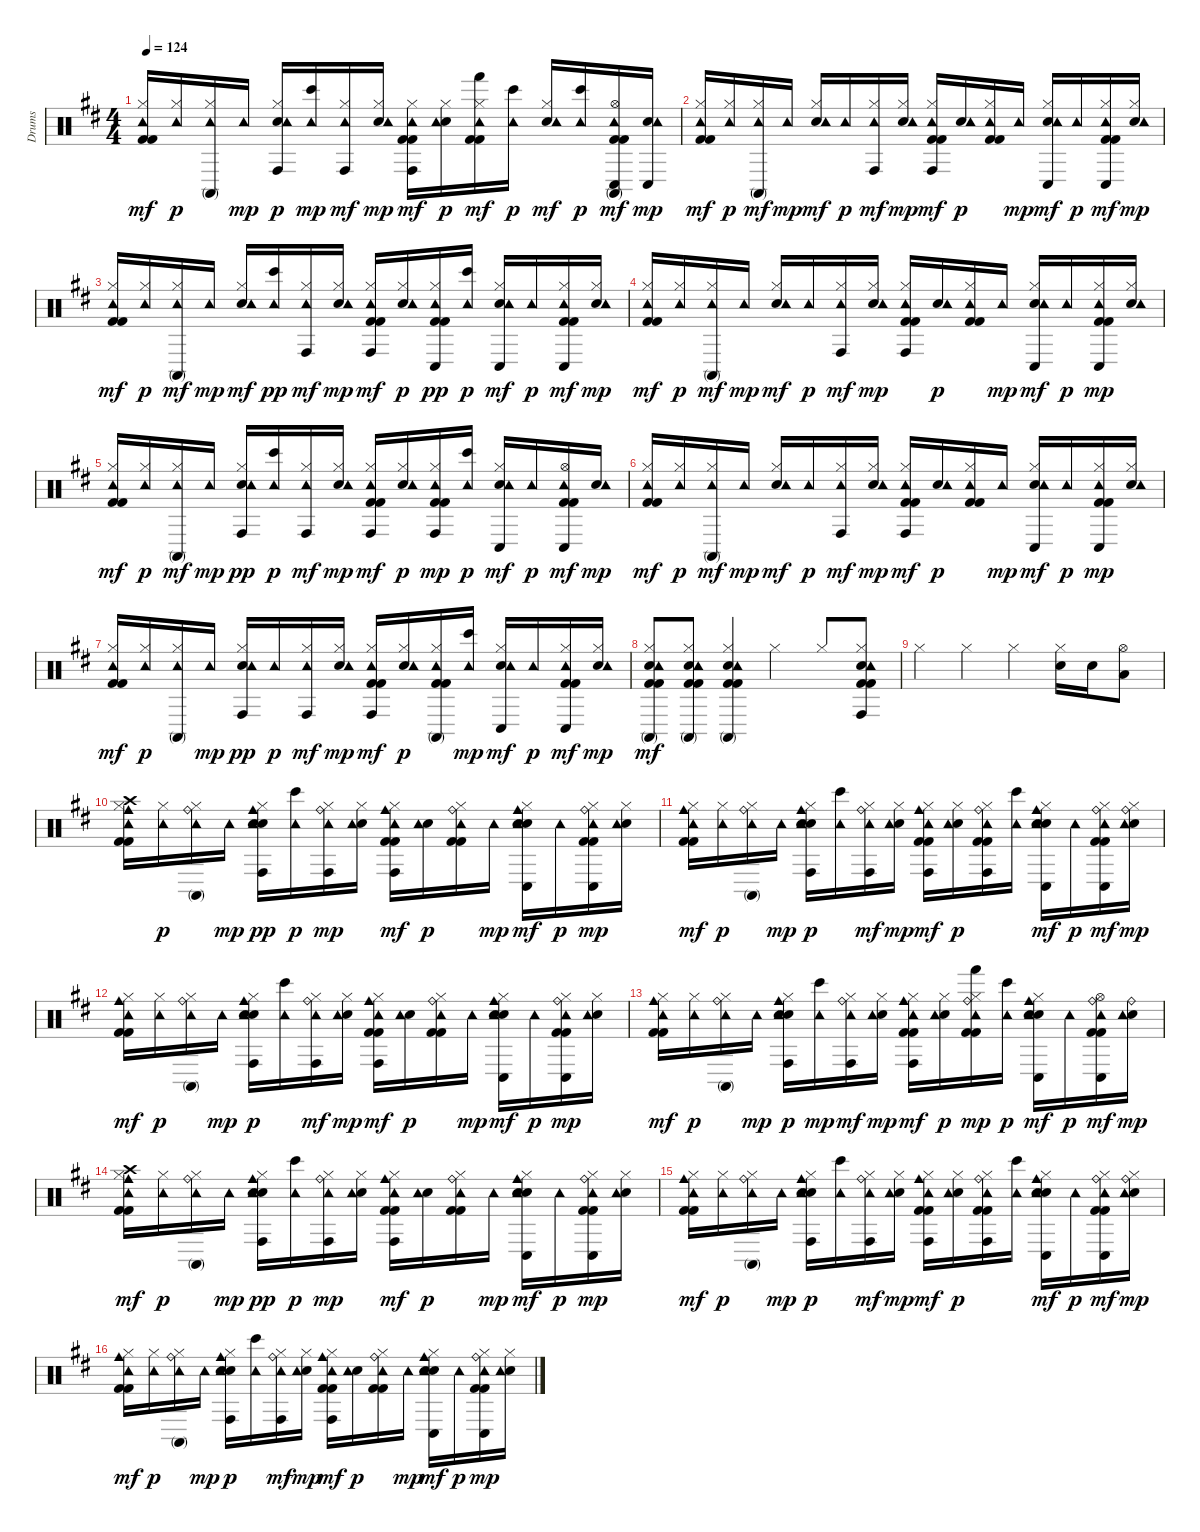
\track ("Drums" "Drums") {instrument percussion}
\staff {score}
\articulation defaults
\ts (4 4)
\tempo 124
\clef neutral
\ks d
("Kick (hit) 2" "Kick (hit) 2" "Hi-Hat (closed)" "Tambourine (hit)").16{dy mf} ("Hi-Hat (closed)" "Tambourine (hit)").16{dy p} ("Hi-Hat (closed)" "Tambourine (hit)" "Conga high (mute)").16 "Tambourine (hit)".16{dy mp} ("Electric Snare (hit)" "Hi-Hat (closed)" "Tambourine (hit)" "Conga high (hit)").16{dy p} ("Tambourine (hit)" "Bongo High (hit)").16{dy mp} ("Hi-Hat (closed)" "Tambourine (hit)" "Conga high (hit)").16{dy mf} ("Electric Snare (hit)" "Hi-Hat (closed)" "Tambourine (hit)").16{dy mp} ("Kick (hit) 2" "Kick (hit) 2" "Hi-Hat (closed)" "Tambourine (hit)" "Conga high (hit)").16{dy mf} ("Electric Snare (hit)" "Hi-Hat (closed)" "Tambourine (hit)").16{dy p} ("Kick (hit) 2" "Kick (hit) 2" "Hi-Hat (closed)" "Tambourine (hit)" "Hand (hit)").16{dy mf} ("Tambourine (hit)" "Bongo High (hit)").16{dy p} ("Electric Snare (hit)" "Hi-Hat (closed)" "Tambourine (hit)").16{dy mf} ("Tambourine (hit)" "Bongo High (hit)").16{dy p} ("Kick (hit) 2" "Kick (hit) 2" "Hi-Hat (open)" "Tambourine (hit)" "Conga high (mute)" "Conga low (hit)").16{dy mf} ("Electric Snare (hit)" "Tambourine (hit)" "Conga low (hit)").16{dy mp} |
("Kick (hit) 2" "Kick (hit) 2" "Hi-Hat (closed)" "Tambourine (hit)").16{dy mf} ("Hi-Hat (closed)" "Tambourine (hit)").16{dy p} ("Hi-Hat (closed)" "Tambourine (hit)" "Conga high (mute)").16{dy mf} "Tambourine (hit)".16{dy mp} ("Electric Snare (hit)" "Hi-Hat (closed)" "Tambourine (hit)").16{dy mf} "Tambourine (hit)".16{dy p} ("Hi-Hat (closed)" "Tambourine (hit)" "Conga high (hit)").16{dy mf} ("Electric Snare (hit)" "Hi-Hat (closed)" "Tambourine (hit)").16{dy mp} ("Kick (hit) 2" "Kick (hit) 2" "Hi-Hat (closed)" "Tambourine (hit)" "Conga high (hit)").16{dy mf} ("Electric Snare (hit)" "Tambourine (hit)").16{dy p} ("Kick (hit) 2" "Kick (hit) 2" "Hi-Hat (closed)" "Tambourine (hit)").16 "Tambourine (hit)".16{dy mp} ("Electric Snare (hit)" "Hi-Hat (closed)" "Tambourine (hit)" "Conga low (hit)").16{dy mf} "Tambourine (hit)".16{dy p} ("Kick (hit) 2" "Kick (hit) 2" "Hi-Hat (closed)" "Tambourine (hit)" "Conga low (hit)").16{dy mf} ("Electric Snare (hit)" "Hi-Hat (closed)" "Tambourine (hit)").16{dy mp} |
("Kick (hit) 2" "Kick (hit) 2" "Hi-Hat (closed)" "Tambourine (hit)").16{dy mf} ("Hi-Hat (closed)" "Tambourine (hit)").16{dy p} ("Hi-Hat (closed)" "Tambourine (hit)" "Conga high (mute)").16{dy mf} "Tambourine (hit)".16{dy mp} ("Electric Snare (hit)" "Hi-Hat (closed)" "Tambourine (hit)").16{dy mf} ("Tambourine (hit)" "Bongo High (hit)").16{dy pp} ("Hi-Hat (closed)" "Tambourine (hit)" "Conga high (hit)").16{dy mf} ("Electric Snare (hit)" "Hi-Hat (closed)" "Tambourine (hit)").16{dy mp} ("Kick (hit) 2" "Kick (hit) 2" "Hi-Hat (closed)" "Tambourine (hit)" "Conga high (hit)").16{dy mf} ("Electric Snare (hit)" "Hi-Hat (closed)" "Tambourine (hit)").16{dy p} ("Kick (hit) 2" "Kick (hit) 2" "Hi-Hat (closed)" "Tambourine (hit)" "Conga low (hit)").16{dy pp} ("Tambourine (hit)" "Bongo High (hit)").16{dy p} ("Electric Snare (hit)" "Hi-Hat (closed)" "Tambourine (hit)" "Conga low (hit)").16{dy mf} "Tambourine (hit)".16{dy p} ("Kick (hit) 2" "Kick (hit) 2" "Hi-Hat (closed)" "Tambourine (hit)" "Conga low (hit)").16{dy mf} ("Electric Snare (hit)" "Hi-Hat (closed)" "Tambourine (hit)").16{dy mp} |
("Kick (hit) 2" "Kick (hit) 2" "Hi-Hat (closed)" "Tambourine (hit)").16{dy mf} ("Hi-Hat (closed)" "Tambourine (hit)").16{dy p} ("Hi-Hat (closed)" "Tambourine (hit)" "Conga high (mute)").16{dy mf} "Tambourine (hit)".16{dy mp} ("Electric Snare (hit)" "Hi-Hat (closed)" "Tambourine (hit)").16{dy mf} "Tambourine (hit)".16{dy p} ("Hi-Hat (closed)" "Tambourine (hit)" "Conga high (hit)").16{dy mf} ("Electric Snare (hit)" "Hi-Hat (closed)" "Tambourine (hit)").16{dy mp} ("Kick (hit) 2" "Kick (hit) 2" "Hi-Hat (closed)" "Tambourine (hit)" "Conga high (hit)").16 ("Electric Snare (hit)" "Tambourine (hit)").16{dy p} ("Kick (hit) 2" "Kick (hit) 2" "Hi-Hat (closed)" "Tambourine (hit)").16 "Tambourine (hit)".16{dy mp} ("Electric Snare (hit)" "Hi-Hat (closed)" "Tambourine (hit)" "Conga low (hit)").16{dy mf} "Tambourine (hit)".16{dy p} ("Kick (hit) 2" "Kick (hit) 2" "Hi-Hat (closed)" "Tambourine (hit)" "Conga low (hit)").16{dy mp} ("Electric Snare (hit)" "Hi-Hat (closed)" "Tambourine (hit)").16 |
("Kick (hit) 2" "Kick (hit) 2" "Hi-Hat (closed)" "Tambourine (hit)").16{dy mf} ("Hi-Hat (closed)" "Tambourine (hit)").16{dy p} ("Hi-Hat (closed)" "Tambourine (hit)" "Conga high (mute)").16{dy mf} "Tambourine (hit)".16{dy mp} ("Electric Snare (hit)" "Hi-Hat (closed)" "Tambourine (hit)" "Conga high (hit)").16{dy pp} ("Tambourine (hit)" "Bongo High (hit)").16{dy p} ("Hi-Hat (closed)" "Tambourine (hit)" "Conga high (hit)").16{dy mf} ("Electric Snare (hit)" "Hi-Hat (closed)" "Tambourine (hit)").16{dy mp} ("Kick (hit) 2" "Kick (hit) 2" "Hi-Hat (closed)" "Tambourine (hit)" "Conga high (hit)").16{dy mf} ("Electric Snare (hit)" "Hi-Hat (closed)" "Tambourine (hit)").16{dy p} ("Kick (hit) 2" "Kick (hit) 2" "Hi-Hat (closed)" "Tambourine (hit)" "Conga high (hit)").16{dy mp} ("Tambourine (hit)" "Bongo High (hit)").16{dy p} ("Electric Snare (hit)" "Hi-Hat (closed)" "Tambourine (hit)" "Conga low (hit)").16{dy mf} "Tambourine (hit)".16{dy p} ("Kick (hit) 2" "Kick (hit) 2" "Hi-Hat (open)" "Tambourine (hit)" "Conga low (hit)").16{dy mf} ("Electric Snare (hit)" "Tambourine (hit)").16{dy mp} |
("Kick (hit) 2" "Kick (hit) 2" "Hi-Hat (closed)" "Tambourine (hit)").16{dy mf} ("Hi-Hat (closed)" "Tambourine (hit)").16{dy p} ("Hi-Hat (closed)" "Tambourine (hit)" "Conga high (mute)").16{dy mf} "Tambourine (hit)".16{dy mp} ("Electric Snare (hit)" "Hi-Hat (closed)" "Tambourine (hit)").16{dy mf} "Tambourine (hit)".16{dy p} ("Hi-Hat (closed)" "Tambourine (hit)" "Conga high (hit)").16{dy mf} ("Electric Snare (hit)" "Hi-Hat (closed)" "Tambourine (hit)").16{dy mp} ("Kick (hit) 2" "Kick (hit) 2" "Hi-Hat (closed)" "Tambourine (hit)" "Conga high (hit)").16{dy mf} ("Electric Snare (hit)" "Tambourine (hit)").16{dy p} ("Kick (hit) 2" "Kick (hit) 2" "Hi-Hat (closed)" "Tambourine (hit)").16 "Tambourine (hit)".16{dy mp} ("Electric Snare (hit)" "Hi-Hat (closed)" "Tambourine (hit)" "Conga low (hit)").16{dy mf} "Tambourine (hit)".16{dy p} ("Kick (hit) 2" "Kick (hit) 2" "Hi-Hat (closed)" "Tambourine (hit)" "Conga low (hit)").16{dy mp} ("Electric Snare (hit)" "Hi-Hat (closed)" "Tambourine (hit)").16 |
("Kick (hit) 2" "Kick (hit) 2" "Hi-Hat (closed)" "Tambourine (hit)").16{dy mf} ("Hi-Hat (closed)" "Tambourine (hit)").16{dy p} ("Hi-Hat (closed)" "Tambourine (hit)" "Conga high (mute)").16 "Tambourine (hit)".16{dy mp} ("Electric Snare (hit)" "Hi-Hat (closed)" "Tambourine (hit)" "Conga high (hit)").16{dy pp} "Tambourine (hit)".16{dy p} ("Hi-Hat (closed)" "Tambourine (hit)" "Conga high (hit)").16{dy mf} ("Electric Snare (hit)" "Hi-Hat (closed)" "Tambourine (hit)").16{dy mp} ("Kick (hit) 2" "Kick (hit) 2" "Hi-Hat (closed)" "Tambourine (hit)" "Conga high (hit)").16{dy mf} ("Electric Snare (hit)" "Hi-Hat (closed)" "Tambourine (hit)").16{dy p} ("Kick (hit) 2" "Kick (hit) 2" "Hi-Hat (closed)" "Tambourine (hit)" "Conga high (mute)").16 ("Tambourine (hit)" "Bongo High (hit)").16{dy mp} ("Electric Snare (hit)" "Hi-Hat (closed)" "Tambourine (hit)" "Conga low (hit)").16{dy mf} "Tambourine (hit)".16{dy p} ("Kick (hit) 2" "Kick (hit) 2" "Hi-Hat (closed)" "Tambourine (hit)" "Conga low (hit)").16{dy mf} ("Electric Snare (hit)" "Hi-Hat (closed)" "Tambourine (hit)").16{dy mp} |
("Kick (hit) 2" "Kick (hit) 2" "Electric Snare (hit)" "Hi-Hat (closed)" "Tambourine (hit)" "Conga high (mute)").8{dy mf} ("Kick (hit) 2" "Kick (hit) 2" "Electric Snare (hit)" "Hi-Hat (closed)" "Tambourine (hit)" "Conga high (mute)").8 ("Kick (hit) 2" "Kick (hit) 2" "Electric Snare (hit)" "Hi-Hat (closed)" "Tambourine (hit)" "Conga high (mute)").4 "Hi-Hat (closed)".4 "Hi-Hat (closed)".8 ("Kick (hit) 2" "Kick (hit) 2" "Electric Snare (hit)" "Hi-Hat (closed)" "Tambourine (hit)" "Conga high (hit)").8 |
"Hi-Hat (closed)".4 "Hi-Hat (closed)".4 "Hi-Hat (closed)".4 ("Electric Snare (hit)" "Hi-Hat (closed)").16 "Electric Snare (hit)".16 ("Low Tom (hit)" "Hi-Hat (open)").8 |
("Kick (hit) 2" "Kick (hit) 2" "Hi-Hat (closed)" "Crash high (hit)" "Tambourine (hit)" "Cowbell medium (hit)").16 ("Hi-Hat (closed)" "Tambourine (hit)").16{dy p} ("Hi-Hat (closed)" "Ride (bell)" "Tambourine (hit)" "Conga high (mute)").16 "Tambourine (hit)".16{dy mp} ("Hand Clap (hit)" "Electric Snare (hit)" "Hi-Hat (closed)" "Tambourine (hit)" "Cowbell medium (hit)" "Conga high (hit)").16{dy pp} ("Tambourine (hit)" "Bongo High (hit)").16{dy p} ("Hi-Hat (closed)" "Ride (bell)" "Tambourine (hit)" "Conga high (hit)").16{dy mp} ("Electric Snare (hit)" "Hi-Hat (closed)" "Tambourine (hit)").16 ("Kick (hit) 2" "Kick (hit) 2" "Hi-Hat (closed)" "Tambourine (hit)" "Cowbell medium (hit)" "Conga high (hit)").16{dy mf} ("Electric Snare (hit)" "Tambourine (hit)").16{dy p} ("Kick (hit) 2" "Kick (hit) 2" "Hi-Hat (closed)" "Ride (bell)" "Tambourine (hit)").16 "Tambourine (hit)".16{dy mp} ("Hand Clap (hit)" "Electric Snare (hit)" "Hi-Hat (closed)" "Tambourine (hit)" "Cowbell medium (hit)" "Conga low (hit)").16{dy mf} "Tambourine (hit)".16{dy p} ("Kick (hit) 2" "Kick (hit) 2" "Hi-Hat (closed)" "Ride (bell)" "Tambourine (hit)" "Conga low (hit)").16{dy mp} ("Electric Snare (hit)" "Hi-Hat (closed)" "Tambourine (hit)").16 |
("Kick (hit) 2" "Kick (hit) 2" "Hi-Hat (closed)" "Tambourine (hit)" "Cowbell medium (hit)").16{dy mf} ("Hi-Hat (closed)" "Tambourine (hit)").16{dy p} ("Hi-Hat (closed)" "Ride (bell)" "Tambourine (hit)" "Conga high (mute)").16 "Tambourine (hit)".16{dy mp} ("Hand Clap (hit)" "Electric Snare (hit)" "Hi-Hat (closed)" "Tambourine (hit)" "Cowbell medium (hit)" "Conga high (hit)").16{dy p} ("Tambourine (hit)" "Bongo High (hit)").16 ("Hi-Hat (closed)" "Ride (bell)" "Tambourine (hit)" "Conga high (hit)").16{dy mf} ("Electric Snare (hit)" "Hi-Hat (closed)" "Tambourine (hit)").16{dy mp} ("Kick (hit) 2" "Kick (hit) 2" "Hi-Hat (closed)" "Tambourine (hit)" "Cowbell medium (hit)" "Conga high (hit)").16{dy mf} ("Electric Snare (hit)" "Hi-Hat (closed)" "Tambourine (hit)").16{dy p} ("Kick (hit) 2" "Kick (hit) 2" "Hi-Hat (closed)" "Ride (bell)" "Tambourine (hit)" "Conga high (hit)").16 ("Tambourine (hit)" "Bongo High (hit)").16 ("Hand Clap (hit)" "Electric Snare (hit)" "Hi-Hat (closed)" "Tambourine (hit)" "Cowbell medium (hit)" "Conga low (hit)").16{dy mf} "Tambourine (hit)".16{dy p} ("Kick (hit) 2" "Kick (hit) 2" "Hi-Hat (closed)" "Ride (bell)" "Tambourine (hit)" "Conga low (hit)").16{dy mf} ("Electric Snare (hit)" "Hi-Hat (closed)" "Ride (bell)" "Tambourine (hit)").16{dy mp} |
("Kick (hit) 2" "Kick (hit) 2" "Hi-Hat (closed)" "Tambourine (hit)" "Cowbell medium (hit)").16{dy mf} ("Hi-Hat (closed)" "Tambourine (hit)").16{dy p} ("Hi-Hat (closed)" "Ride (bell)" "Tambourine (hit)" "Conga high (mute)").16 "Tambourine (hit)".16{dy mp} ("Hand Clap (hit)" "Electric Snare (hit)" "Hi-Hat (closed)" "Tambourine (hit)" "Cowbell medium (hit)" "Conga high (hit)").16{dy p} ("Tambourine (hit)" "Bongo High (hit)").16 ("Hi-Hat (closed)" "Ride (bell)" "Tambourine (hit)" "Conga high (hit)").16{dy mf} ("Electric Snare (hit)" "Hi-Hat (closed)" "Tambourine (hit)").16{dy mp} ("Kick (hit) 2" "Kick (hit) 2" "Hi-Hat (closed)" "Tambourine (hit)" "Cowbell medium (hit)" "Conga high (hit)").16{dy mf} ("Electric Snare (hit)" "Tambourine (hit)").16{dy p} ("Kick (hit) 2" "Kick (hit) 2" "Hi-Hat (closed)" "Ride (bell)" "Tambourine (hit)").16 "Tambourine (hit)".16{dy mp} ("Hand Clap (hit)" "Electric Snare (hit)" "Hi-Hat (closed)" "Tambourine (hit)" "Cowbell medium (hit)" "Conga low (hit)").16{dy mf} "Tambourine (hit)".16{dy p} ("Kick (hit) 2" "Kick (hit) 2" "Hi-Hat (closed)" "Ride (bell)" "Tambourine (hit)" "Conga low (hit)").16{dy mp} ("Electric Snare (hit)" "Hi-Hat (closed)" "Tambourine (hit)").16 |
("Kick (hit) 2" "Kick (hit) 2" "Hi-Hat (closed)" "Tambourine (hit)" "Cowbell medium (hit)").16{dy mf} ("Hi-Hat (closed)" "Tambourine (hit)").16{dy p} ("Hi-Hat (closed)" "Ride (bell)" "Tambourine (hit)" "Conga high (mute)").16 "Tambourine (hit)".16{dy mp} ("Hand Clap (hit)" "Electric Snare (hit)" "Hi-Hat (closed)" "Tambourine (hit)" "Cowbell medium (hit)" "Conga high (hit)").16{dy p} ("Tambourine (hit)" "Bongo High (hit)").16{dy mp} ("Hi-Hat (closed)" "Ride (bell)" "Tambourine (hit)" "Conga high (hit)").16{dy mf} ("Electric Snare (hit)" "Hi-Hat (closed)" "Tambourine (hit)").16{dy mp} ("Kick (hit) 2" "Kick (hit) 2" "Hi-Hat (closed)" "Tambourine (hit)" "Cowbell medium (hit)" "Conga high (hit)").16{dy mf} ("Electric Snare (hit)" "Hi-Hat (closed)" "Tambourine (hit)").16{dy p} ("Kick (hit) 2" "Kick (hit) 2" "Hi-Hat (closed)" "Ride (bell)" "Tambourine (hit)" "Hand (hit)").16{dy mp} ("Tambourine (hit)" "Bongo High (hit)").16{dy p} ("Hand Clap (hit)" "Electric Snare (hit)" "Hi-Hat (closed)" "Tambourine (hit)" "Cowbell medium (hit)" "Conga low (hit)").16{dy mf} "Tambourine (hit)".16{dy p} ("Kick (hit) 2" "Kick (hit) 2" "Hi-Hat (open)" "Ride (bell)" "Tambourine (hit)" "Conga low (hit)").16{dy mf} ("Electric Snare (hit)" "Ride (bell)" "Tambourine (hit)").16{dy mp} |
("Kick (hit) 2" "Kick (hit) 2" "Hi-Hat (closed)" "Crash high (hit)" "Tambourine (hit)" "Cowbell medium (hit)").16{dy mf} ("Hi-Hat (closed)" "Tambourine (hit)").16{dy p} ("Hi-Hat (closed)" "Ride (bell)" "Tambourine (hit)" "Conga high (mute)").16 "Tambourine (hit)".16{dy mp} ("Hand Clap (hit)" "Electric Snare (hit)" "Hi-Hat (closed)" "Tambourine (hit)" "Cowbell medium (hit)" "Conga high (hit)").16{dy pp} ("Tambourine (hit)" "Bongo High (hit)").16{dy p} ("Hi-Hat (closed)" "Ride (bell)" "Tambourine (hit)" "Conga high (hit)").16{dy mp} ("Electric Snare (hit)" "Hi-Hat (closed)" "Tambourine (hit)").16 ("Kick (hit) 2" "Kick (hit) 2" "Hi-Hat (closed)" "Tambourine (hit)" "Cowbell medium (hit)" "Conga high (hit)").16{dy mf} ("Electric Snare (hit)" "Tambourine (hit)").16{dy p} ("Kick (hit) 2" "Kick (hit) 2" "Hi-Hat (closed)" "Ride (bell)" "Tambourine (hit)").16 "Tambourine (hit)".16{dy mp} ("Hand Clap (hit)" "Electric Snare (hit)" "Hi-Hat (closed)" "Tambourine (hit)" "Cowbell medium (hit)" "Conga low (hit)").16{dy mf} "Tambourine (hit)".16{dy p} ("Kick (hit) 2" "Kick (hit) 2" "Hi-Hat (closed)" "Ride (bell)" "Tambourine (hit)" "Conga low (hit)").16{dy mp} ("Electric Snare (hit)" "Hi-Hat (closed)" "Tambourine (hit)").16 |
("Kick (hit) 2" "Kick (hit) 2" "Hi-Hat (closed)" "Tambourine (hit)" "Cowbell medium (hit)").16{dy mf} ("Hi-Hat (closed)" "Tambourine (hit)").16{dy p} ("Hi-Hat (closed)" "Ride (bell)" "Tambourine (hit)" "Conga high (mute)").16 "Tambourine (hit)".16{dy mp} ("Hand Clap (hit)" "Electric Snare (hit)" "Hi-Hat (closed)" "Tambourine (hit)" "Cowbell medium (hit)" "Conga high (hit)").16{dy p} ("Tambourine (hit)" "Bongo High (hit)").16 ("Hi-Hat (closed)" "Ride (bell)" "Tambourine (hit)" "Conga high (hit)").16{dy mf} ("Electric Snare (hit)" "Hi-Hat (closed)" "Tambourine (hit)").16{dy mp} ("Kick (hit) 2" "Kick (hit) 2" "Hi-Hat (closed)" "Tambourine (hit)" "Cowbell medium (hit)" "Conga high (hit)").16{dy mf} ("Electric Snare (hit)" "Hi-Hat (closed)" "Tambourine (hit)").16{dy p} ("Kick (hit) 2" "Kick (hit) 2" "Hi-Hat (closed)" "Ride (bell)" "Tambourine (hit)" "Conga high (hit)").16 ("Tambourine (hit)" "Bongo High (hit)").16 ("Hand Clap (hit)" "Electric Snare (hit)" "Hi-Hat (closed)" "Tambourine (hit)" "Cowbell medium (hit)" "Conga low (hit)").16{dy mf} "Tambourine (hit)".16{dy p} ("Kick (hit) 2" "Kick (hit) 2" "Hi-Hat (closed)" "Ride (bell)" "Tambourine (hit)" "Conga low (hit)").16{dy mf} ("Electric Snare (hit)" "Hi-Hat (closed)" "Ride (bell)" "Tambourine (hit)").16{dy mp} |
("Kick (hit) 2" "Kick (hit) 2" "Hi-Hat (closed)" "Tambourine (hit)" "Cowbell medium (hit)").16{dy mf} ("Hi-Hat (closed)" "Tambourine (hit)").16{dy p} ("Hi-Hat (closed)" "Ride (bell)" "Tambourine (hit)" "Conga high (mute)").16 "Tambourine (hit)".16{dy mp} ("Hand Clap (hit)" "Electric Snare (hit)" "Hi-Hat (closed)" "Tambourine (hit)" "Cowbell medium (hit)" "Conga high (hit)").16{dy p} ("Tambourine (hit)" "Bongo High (hit)").16 ("Hi-Hat (closed)" "Ride (bell)" "Tambourine (hit)" "Conga high (hit)").16{dy mf} ("Electric Snare (hit)" "Hi-Hat (closed)" "Tambourine (hit)").16{dy mp} ("Kick (hit) 2" "Kick (hit) 2" "Hi-Hat (closed)" "Tambourine (hit)" "Cowbell medium (hit)" "Conga high (hit)").16{dy mf} ("Electric Snare (hit)" "Tambourine (hit)").16{dy p} ("Kick (hit) 2" "Kick (hit) 2" "Hi-Hat (closed)" "Ride (bell)" "Tambourine (hit)").16 "Tambourine (hit)".16{dy mp} ("Hand Clap (hit)" "Electric Snare (hit)" "Hi-Hat (closed)" "Tambourine (hit)" "Cowbell medium (hit)" "Conga low (hit)").16{dy mf} "Tambourine (hit)".16{dy p} ("Kick (hit) 2" "Kick (hit) 2" "Hi-Hat (closed)" "Ride (bell)" "Tambourine (hit)" "Conga low (hit)").16{dy mp} ("Electric Snare (hit)" "Hi-Hat (closed)" "Tambourine (hit)").16
